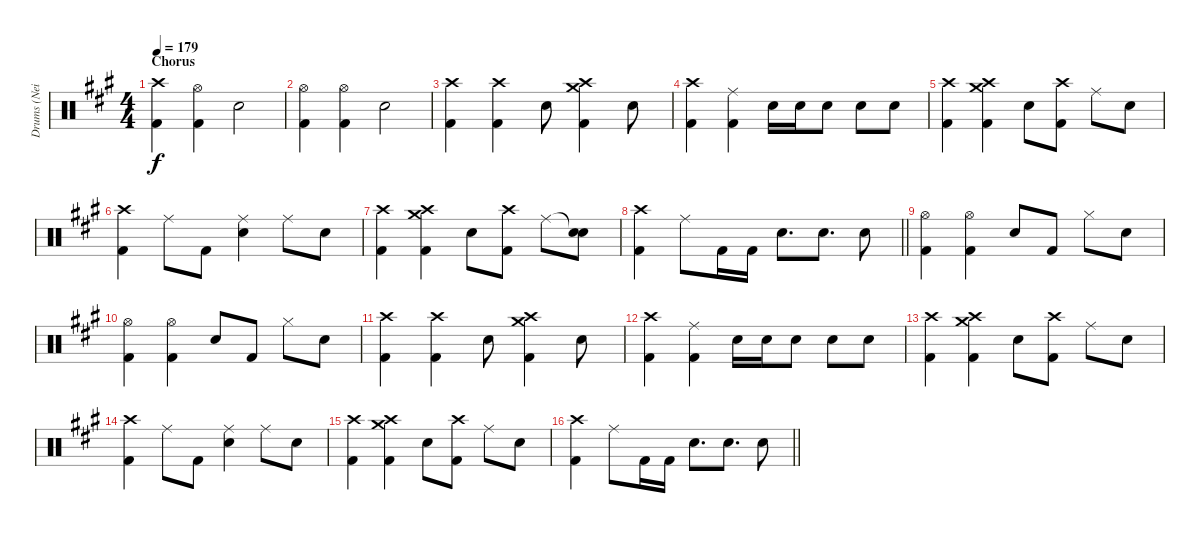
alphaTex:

\track ("Drums (Neil Sanderson)" "Drums (Nei") {instrument percussion}
\staff {score}
\articulation defaults
\ts (4 4)
\section ("" "Chorus")
\tempo 179
\clef neutral
\ks f#minor
("Crash high (hit)" "Kick (hit) 2").4{dy f} ("Hi-Hat (open)" "Kick (hit) 2").4 "Electric Snare (hit)".2 |
("Hi-Hat (open)" "Kick (hit) 2").4 ("Hi-Hat (open)" "Kick (hit) 2").4 "Electric Snare (hit)".2 |
("Crash high (hit)" "Kick (hit) 2").4 ("Crash high (hit)" "Kick (hit) 2").4 "Electric Snare (hit)".8 ("Crash medium (hit)" "Crash high (hit)" "Kick (hit) 2").4 "Electric Snare (hit)".8 |
("Crash high (hit)" "Kick (hit) 2").4 ("Ride (middle)" "Kick (hit) 2").4 "Electric Snare (hit)".16 "Electric Snare (hit)".16 "Electric Snare (hit)".8 "Electric Snare (hit)".8 "Electric Snare (hit)".8 |
("Crash high (hit)" "Kick (hit) 2").4 ("Crash medium (hit)" "Crash high (hit)" "Kick (hit) 2").4 "Electric Snare (hit)".8 ("Crash high (hit)" "Kick (hit) 2").8 "Ride (middle)".8 "Electric Snare (hit)".8 |
("Crash high (hit)" "Kick (hit) 2").4 "Ride (middle)".8 "Kick (hit) 2".8 ("Ride (middle)" "Electric Snare (hit)").4 "Ride (middle)".8 "Electric Snare (hit)".8 |
("Crash high (hit)" "Kick (hit) 2").4 ("Crash medium (hit)" "Crash high (hit)" "Kick (hit) 2").4 "Electric Snare (hit)".8 ("Crash high (hit)" "Kick (hit) 2").8 "Ride (middle)".8 ("Snare (hit)"{t} "Electric Snare (hit)").8 |
\barLineRight lightlight
("Crash high (hit)" "Kick (hit) 2").4 "Ride (middle)".8 "Kick (hit) 2".16 "Kick (hit) 2".16 "Electric Snare (hit)".8{d} "Electric Snare (hit)".8{d} "Electric Snare (hit)".8 |
("Hi-Hat (open)" "Kick (hit) 2").4 ("Hi-Hat (open)" "Kick (hit) 2").4 "Electric Snare (hit)".8 "Kick (hit) 2".8 "Hi-Hat (closed)".8 "Electric Snare (hit)".8 |
("Hi-Hat (open)" "Kick (hit) 2").4 ("Hi-Hat (open)" "Kick (hit) 2").4 "Electric Snare (hit)".8 "Kick (hit) 2".8 "Hi-Hat (closed)".8 "Electric Snare (hit)".8 |
("Crash high (hit)" "Kick (hit) 2").4 ("Crash high (hit)" "Kick (hit) 2").4 "Electric Snare (hit)".8 ("Crash medium (hit)" "Crash high (hit)" "Kick (hit) 2").4 "Electric Snare (hit)".8 |
("Crash high (hit)" "Kick (hit) 2").4 ("Ride (middle)" "Kick (hit) 2").4 "Electric Snare (hit)".16 "Electric Snare (hit)".16 "Electric Snare (hit)".8 "Electric Snare (hit)".8 "Electric Snare (hit)".8 |
("Crash high (hit)" "Kick (hit) 2").4 ("Crash medium (hit)" "Crash high (hit)" "Kick (hit) 2").4 "Electric Snare (hit)".8 ("Crash high (hit)" "Kick (hit) 2").8 "Ride (middle)".8 "Electric Snare (hit)".8 |
("Crash high (hit)" "Kick (hit) 2").4 "Ride (middle)".8 "Kick (hit) 2".8 ("Ride (middle)" "Electric Snare (hit)").4 "Ride (middle)".8 "Electric Snare (hit)".8 |
("Crash high (hit)" "Kick (hit) 2").4 ("Crash medium (hit)" "Crash high (hit)" "Kick (hit) 2").4 "Electric Snare (hit)".8 ("Crash high (hit)" "Kick (hit) 2").8 "Ride (middle)".8 "Electric Snare (hit)".8 |
\barLineRight lightlight
("Crash high (hit)" "Kick (hit) 2").4 "Ride (middle)".8 "Kick (hit) 2".16 "Kick (hit) 2".16 "Electric Snare (hit)".8{d} "Electric Snare (hit)".8{d} "Electric Snare (hit)".8
